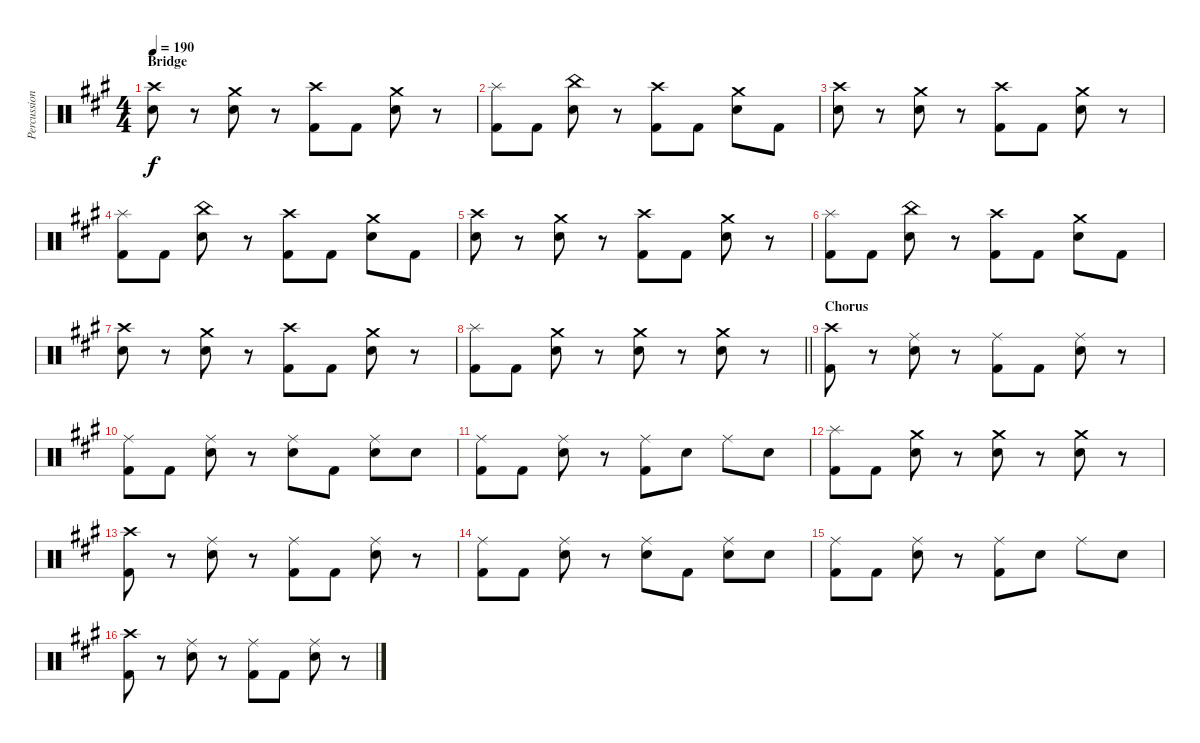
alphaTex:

\track ("Percussion" "Percussion") {instrument percussion}
\staff {score}
\articulation defaults
\ts (4 4)
\section ("" "Bridge")
\tempo 190
\clef neutral
\ks a
("Crash high (hit)" "Snare (hit) 2").8{dy f} r.8 ("Crash medium (hit)" "Snare (hit) 2").8 r.8 ("Crash high (hit)" "Kick (hit) 2").8 "Kick (hit) 2".8 ("Crash medium (hit)" "Snare (hit) 2").8 r.8 |
("Splash (hit)" "Kick (hit) 2").8 "Kick (hit) 2".8 ("China (hit)" "Snare (hit) 2").8 r.8 ("Crash high (hit)" "Kick (hit) 2").8 "Kick (hit) 2".8 ("Crash medium (hit)" "Snare (hit) 2").8 "Kick (hit) 2".8 |
("Crash high (hit)" "Snare (hit) 2").8 r.8 ("Crash medium (hit)" "Snare (hit) 2").8 r.8 ("Crash high (hit)" "Kick (hit) 2").8 "Kick (hit) 2".8 ("Crash medium (hit)" "Snare (hit) 2").8 r.8 |
("Splash (hit)" "Kick (hit) 2").8 "Kick (hit) 2".8 ("China (hit)" "Snare (hit) 2").8 r.8 ("Crash high (hit)" "Kick (hit) 2").8 "Kick (hit) 2".8 ("Crash medium (hit)" "Snare (hit) 2").8 "Kick (hit) 2".8 |
("Crash high (hit)" "Snare (hit) 2").8 r.8 ("Crash medium (hit)" "Snare (hit) 2").8 r.8 ("Crash high (hit)" "Kick (hit) 2").8 "Kick (hit) 2".8 ("Crash medium (hit)" "Snare (hit) 2").8 r.8 |
("Splash (hit)" "Kick (hit) 2").8 "Kick (hit) 2".8 ("China (hit)" "Snare (hit) 2").8 r.8 ("Crash high (hit)" "Kick (hit) 2").8 "Kick (hit) 2".8 ("Crash medium (hit)" "Snare (hit) 2").8 "Kick (hit) 2".8 |
("Crash high (hit)" "Snare (hit) 2").8 r.8 ("Crash medium (hit)" "Snare (hit) 2").8 r.8 ("Crash high (hit)" "Kick (hit) 2").8 "Kick (hit) 2".8 ("Crash medium (hit)" "Snare (hit) 2").8 r.8 |
\barLineRight lightlight
("Splash (hit)" "Kick (hit) 2").8 "Kick (hit) 2".8 ("Crash medium (hit)" "Snare (hit) 2").8 r.8 ("Crash medium (hit)" "Snare (hit) 2").8 r.8 ("Crash medium (hit)" "Snare (hit) 2").8 r.8 |
\section ("" "Chorus")
("Crash high (hit)" "Kick (hit) 2").8 r.8 ("Ride (middle)" "Snare (hit) 2").8 r.8 ("Ride (middle)" "Kick (hit) 2").8 "Kick (hit) 2".8 ("Ride (middle)" "Snare (hit) 2").8 r.8 |
("Ride (middle)" "Kick (hit) 2").8 "Kick (hit) 2".8 ("Ride (middle)" "Snare (hit) 2").8 r.8 ("Ride (middle)" "Snare (hit) 2").8 "Kick (hit) 2".8 ("Ride (middle)" "Snare (hit) 2").8 "Snare (hit) 2".8 |
("Ride (middle)" "Kick (hit) 2").8 "Kick (hit) 2".8 ("Ride (middle)" "Snare (hit) 2").8 r.8 ("Ride (middle)" "Kick (hit) 2").8 "Snare (hit) 2".8 "Ride (middle)".8 "Snare (hit) 2".8 |
("Splash (hit)" "Kick (hit) 2").8 "Kick (hit) 2".8 ("Crash medium (hit)" "Snare (hit) 2").8 r.8 ("Crash medium (hit)" "Snare (hit) 2").8 r.8 ("Crash medium (hit)" "Snare (hit) 2").8 r.8 |
("Crash high (hit)" "Kick (hit) 2").8 r.8 ("Ride (middle)" "Snare (hit) 2").8 r.8 ("Ride (middle)" "Kick (hit) 2").8 "Kick (hit) 2".8 ("Ride (middle)" "Snare (hit) 2").8 r.8 |
("Ride (middle)" "Kick (hit) 2").8 "Kick (hit) 2".8 ("Ride (middle)" "Snare (hit) 2").8 r.8 ("Ride (middle)" "Snare (hit) 2").8 "Kick (hit) 2".8 ("Ride (middle)" "Snare (hit) 2").8 "Snare (hit) 2".8 |
("Ride (middle)" "Kick (hit) 2").8 "Kick (hit) 2".8 ("Ride (middle)" "Snare (hit) 2").8 r.8 ("Ride (middle)" "Kick (hit) 2").8 "Snare (hit) 2".8 "Ride (middle)".8 "Snare (hit) 2".8 |
("Crash high (hit)" "Kick (hit) 2").8 r.8 ("Ride (middle)" "Snare (hit) 2").8 r.8 ("Ride (middle)" "Kick (hit) 2").8 "Kick (hit) 2".8 ("Ride (middle)" "Snare (hit) 2").8 r.8
